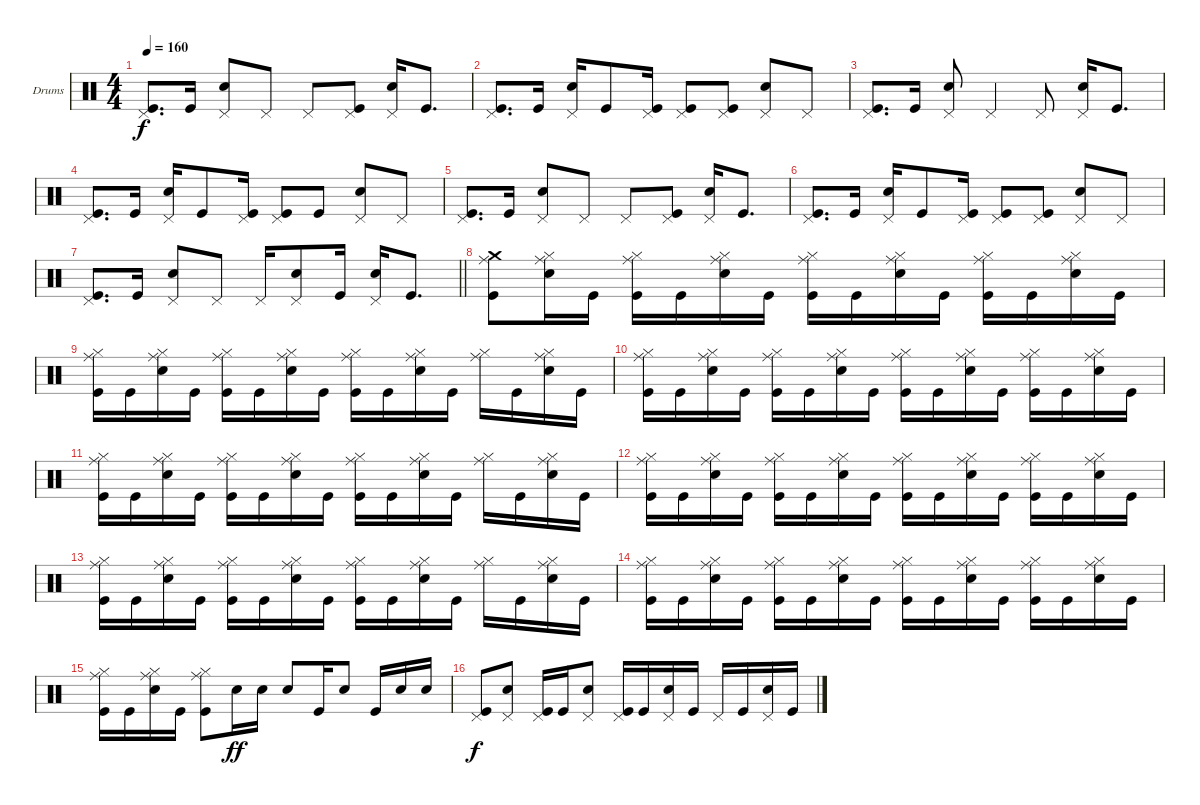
\defaultSystemsLayout 4
\bracketExtendMode groupsimilarinstruments
\firstSystemTrackNameOrientation horizontal
\otherSystemsTrackNameOrientation horizontal
\track ("Drumkit" "Drums") {instrument percussion}
\staff {score}
\articulation defaults
\ts (4 4)
\tempo 160
\clef neutral
\ks aminor
("Kick (hit)" "Pedal Hi-Hat (hit)").8{d dy f} "Kick (hit)".16 ("Snare (hit) 2" "Pedal Hi-Hat (hit)").8 "Pedal Hi-Hat (hit)".8 "Pedal Hi-Hat (hit)".8 ("Kick (hit)" "Pedal Hi-Hat (hit)").8 ("Snare (hit) 2" "Pedal Hi-Hat (hit)").16 "Kick (hit)".8{d} |
("Kick (hit)" "Pedal Hi-Hat (hit)").8{d} "Kick (hit)".16 ("Snare (hit) 2" "Pedal Hi-Hat (hit)").16 "Kick (hit)".8 ("Kick (hit)" "Pedal Hi-Hat (hit)").16 ("Kick (hit)" "Pedal Hi-Hat (hit)").8 ("Kick (hit)" "Pedal Hi-Hat (hit)").8 ("Snare (hit) 2" "Pedal Hi-Hat (hit)").8 "Pedal Hi-Hat (hit)".8 |
("Kick (hit)" "Pedal Hi-Hat (hit)").8{d} "Kick (hit)".16 ("Snare (hit) 2" "Pedal Hi-Hat (hit)").8 "Pedal Hi-Hat (hit)".4 "Pedal Hi-Hat (hit)".8 ("Snare (hit) 2" "Pedal Hi-Hat (hit)").16 "Kick (hit)".8{d} |
("Kick (hit)" "Pedal Hi-Hat (hit)").8{d} "Kick (hit)".16 ("Snare (hit) 2" "Pedal Hi-Hat (hit)").16 "Kick (hit)".8 ("Kick (hit)" "Pedal Hi-Hat (hit)").16 ("Kick (hit)" "Pedal Hi-Hat (hit)").8 "Kick (hit)".8 ("Snare (hit) 2" "Pedal Hi-Hat (hit)").8 "Pedal Hi-Hat (hit)".8 |
("Kick (hit)" "Pedal Hi-Hat (hit)").8{d} "Kick (hit)".16 ("Snare (hit) 2" "Pedal Hi-Hat (hit)").8 "Pedal Hi-Hat (hit)".8 "Pedal Hi-Hat (hit)".8 ("Kick (hit)" "Pedal Hi-Hat (hit)").8 ("Snare (hit) 2" "Pedal Hi-Hat (hit)").16 "Kick (hit)".8{d} |
("Kick (hit)" "Pedal Hi-Hat (hit)").8{d} "Kick (hit)".16 ("Snare (hit) 2" "Pedal Hi-Hat (hit)").16 "Kick (hit)".8 ("Kick (hit)" "Pedal Hi-Hat (hit)").16 ("Kick (hit)" "Pedal Hi-Hat (hit)").8 ("Kick (hit)" "Pedal Hi-Hat (hit)").8 ("Snare (hit) 2" "Pedal Hi-Hat (hit)").8 "Pedal Hi-Hat (hit)".8 |
\barLineRight lightlight
("Kick (hit)" "Pedal Hi-Hat (hit)").8{d} "Kick (hit)".16 ("Snare (hit) 2" "Pedal Hi-Hat (hit)").8 "Pedal Hi-Hat (hit)".8 "Pedal Hi-Hat (hit)".16 ("Snare (hit) 2" "Pedal Hi-Hat (hit)").8 "Kick (hit)".16 ("Snare (hit) 2" "Pedal Hi-Hat (hit)").16 "Kick (hit)".8{d} |
("Kick (hit)" "Ride (middle)" "Crash medium (hit)").8 ("Snare (hit) 2" "Hi-Hat (closed)" "Ride (middle)").16 "Kick (hit)".16 ("Kick (hit)" "Hi-Hat (closed)" "Ride (middle)").16 "Kick (hit)".16 ("Snare (hit) 2" "Hi-Hat (closed)" "Ride (middle)").16 "Kick (hit)".16 ("Kick (hit)" "Hi-Hat (closed)" "Ride (middle)").16 "Kick (hit)".16 ("Snare (hit) 2" "Hi-Hat (closed)" "Ride (middle)").16 "Kick (hit)".16 ("Kick (hit)" "Hi-Hat (closed)" "Ride (middle)").16 "Kick (hit)".16 ("Snare (hit) 2" "Hi-Hat (closed)" "Ride (middle)").16 "Kick (hit)".16 |
("Kick (hit)" "Ride (middle)" "Hi-Hat (closed)").16 "Kick (hit)".16 ("Snare (hit) 2" "Hi-Hat (closed)" "Ride (middle)").16 "Kick (hit)".16 ("Kick (hit)" "Hi-Hat (closed)" "Ride (middle)").16 "Kick (hit)".16 ("Snare (hit) 2" "Hi-Hat (closed)" "Ride (middle)").16 "Kick (hit)".16 ("Kick (hit)" "Hi-Hat (closed)" "Ride (middle)").16 "Kick (hit)".16 ("Snare (hit) 2" "Hi-Hat (closed)" "Ride (middle)").16 "Kick (hit)".16 ("Hi-Hat (closed)" "Ride (middle)").16 "Kick (hit)".16 ("Snare (hit) 2" "Hi-Hat (closed)" "Ride (middle)").16 "Kick (hit)".16 |
("Kick (hit)" "Ride (middle)" "Hi-Hat (closed)").16 "Kick (hit)".16 ("Snare (hit) 2" "Hi-Hat (closed)" "Ride (middle)").16 "Kick (hit)".16 ("Kick (hit)" "Hi-Hat (closed)" "Ride (middle)").16 "Kick (hit)".16 ("Snare (hit) 2" "Hi-Hat (closed)" "Ride (middle)").16 "Kick (hit)".16 ("Kick (hit)" "Hi-Hat (closed)" "Ride (middle)").16 "Kick (hit)".16 ("Snare (hit) 2" "Hi-Hat (closed)" "Ride (middle)").16 "Kick (hit)".16 ("Kick (hit)" "Hi-Hat (closed)" "Ride (middle)").16 "Kick (hit)".16 ("Snare (hit) 2" "Hi-Hat (closed)" "Ride (middle)").16 "Kick (hit)".16 |
("Kick (hit)" "Ride (middle)" "Hi-Hat (closed)").16 "Kick (hit)".16 ("Snare (hit) 2" "Hi-Hat (closed)" "Ride (middle)").16 "Kick (hit)".16 ("Kick (hit)" "Hi-Hat (closed)" "Ride (middle)").16 "Kick (hit)".16 ("Snare (hit) 2" "Hi-Hat (closed)" "Ride (middle)").16 "Kick (hit)".16 ("Kick (hit)" "Hi-Hat (closed)" "Ride (middle)").16 "Kick (hit)".16 ("Snare (hit) 2" "Hi-Hat (closed)" "Ride (middle)").16 "Kick (hit)".16 ("Hi-Hat (closed)" "Ride (middle)").16 "Kick (hit)".16 ("Snare (hit) 2" "Hi-Hat (closed)" "Ride (middle)").16 "Kick (hit)".16 |
("Kick (hit)" "Ride (middle)" "Hi-Hat (closed)").16 "Kick (hit)".16 ("Snare (hit) 2" "Hi-Hat (closed)" "Ride (middle)").16 "Kick (hit)".16 ("Kick (hit)" "Hi-Hat (closed)" "Ride (middle)").16 "Kick (hit)".16 ("Snare (hit) 2" "Hi-Hat (closed)" "Ride (middle)").16 "Kick (hit)".16 ("Kick (hit)" "Hi-Hat (closed)" "Ride (middle)").16 "Kick (hit)".16 ("Snare (hit) 2" "Hi-Hat (closed)" "Ride (middle)").16 "Kick (hit)".16 ("Kick (hit)" "Hi-Hat (closed)" "Ride (middle)").16 "Kick (hit)".16 ("Snare (hit) 2" "Hi-Hat (closed)" "Ride (middle)").16 "Kick (hit)".16 |
("Kick (hit)" "Ride (middle)" "Hi-Hat (closed)").16 "Kick (hit)".16 ("Snare (hit) 2" "Hi-Hat (closed)" "Ride (middle)").16 "Kick (hit)".16 ("Kick (hit)" "Hi-Hat (closed)" "Ride (middle)").16 "Kick (hit)".16 ("Snare (hit) 2" "Hi-Hat (closed)" "Ride (middle)").16 "Kick (hit)".16 ("Kick (hit)" "Hi-Hat (closed)" "Ride (middle)").16 "Kick (hit)".16 ("Snare (hit) 2" "Hi-Hat (closed)" "Ride (middle)").16 "Kick (hit)".16 ("Hi-Hat (closed)" "Ride (middle)").16 "Kick (hit)".16 ("Snare (hit) 2" "Hi-Hat (closed)" "Ride (middle)").16 "Kick (hit)".16 |
("Kick (hit)" "Ride (middle)" "Hi-Hat (closed)").16 "Kick (hit)".16 ("Snare (hit) 2" "Hi-Hat (closed)" "Ride (middle)").16 "Kick (hit)".16 ("Kick (hit)" "Hi-Hat (closed)" "Ride (middle)").16 "Kick (hit)".16 ("Snare (hit) 2" "Hi-Hat (closed)" "Ride (middle)").16 "Kick (hit)".16 ("Kick (hit)" "Hi-Hat (closed)" "Ride (middle)").16 "Kick (hit)".16 ("Snare (hit) 2" "Hi-Hat (closed)" "Ride (middle)").16 "Kick (hit)".16 ("Kick (hit)" "Hi-Hat (closed)" "Ride (middle)").16 "Kick (hit)".16 ("Snare (hit) 2" "Hi-Hat (closed)" "Ride (middle)").16 "Kick (hit)".16 |
("Kick (hit)" "Ride (middle)" "Hi-Hat (closed)").16 "Kick (hit)".16 ("Snare (hit) 2" "Hi-Hat (closed)" "Ride (middle)").16 "Kick (hit)".16 ("Kick (hit)" "Hi-Hat (closed)" "Ride (middle)").8 "Snare (hit) 2".16{dy ff} "Snare (hit) 2".16 "Snare (hit) 2".8 "Kick (hit)".16 "Snare (hit) 2".8 "Kick (hit)".16 "Snare (hit) 2".16 "Snare (hit) 2".16 |
("Kick (hit)" "Pedal Hi-Hat (hit)").8{dy f} ("Snare (hit) 2" "Pedal Hi-Hat (hit)").8 ("Kick (hit)" "Pedal Hi-Hat (hit)").16 "Kick (hit)".16 ("Snare (hit) 2" "Pedal Hi-Hat (hit)").8 ("Kick (hit)" "Pedal Hi-Hat (hit)").16 "Kick (hit)".16 ("Snare (hit) 2" "Pedal Hi-Hat (hit)").16 "Kick (hit)".16 "Pedal Hi-Hat (hit)".16 "Kick (hit)".16 ("Snare (hit) 2" "Pedal Hi-Hat (hit)").16 "Kick (hit)".16
